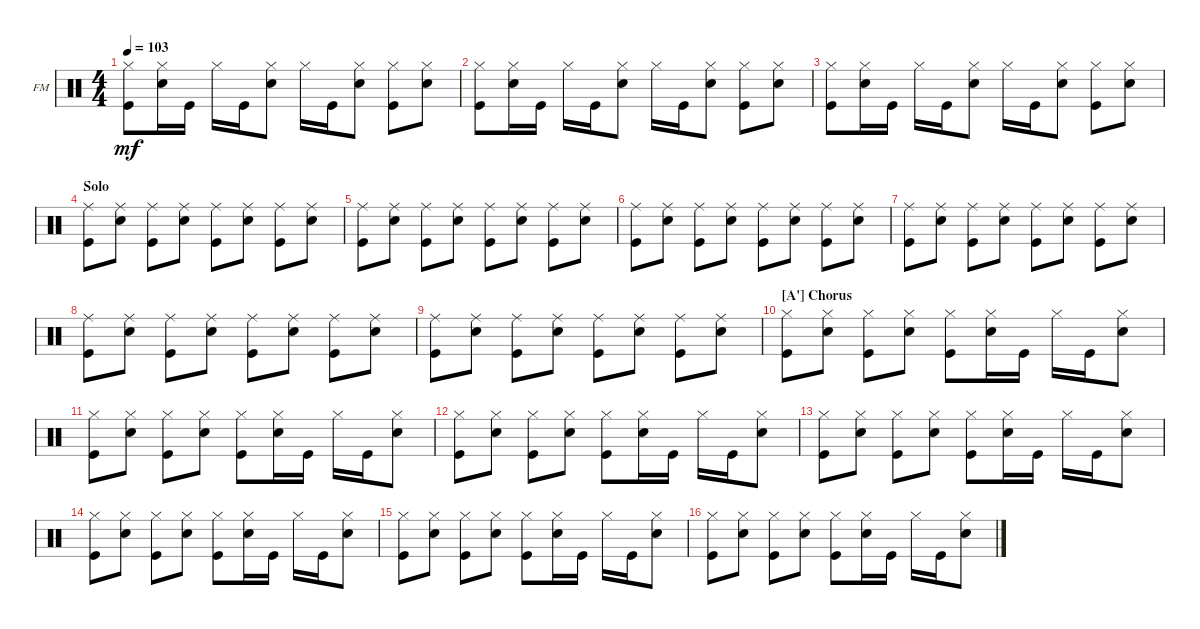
\defaultSystemsLayout 4
\bracketExtendMode groupsimilarinstruments
\firstSystemTrackNameOrientation horizontal
\otherSystemsTrackNameOrientation horizontal
\track ("Fabrizio Moretti" "FM") {instrument percussion}
\staff {score}
\articulation defaults
\ts (4 4)
\tempo 103
\clef neutral
\ks c
("Kick (hit)" "Hi-Hat (closed)").8{dy mf} ("Snare (hit) 2" "Hi-Hat (closed)").16 "Kick (hit)".16 "Hi-Hat (closed)".16 "Kick (hit)".16 ("Snare (hit) 2" "Hi-Hat (closed)").8 "Hi-Hat (closed)".16 "Kick (hit)".16 ("Snare (hit) 2" "Hi-Hat (closed)").8 ("Kick (hit)" "Hi-Hat (closed)").8 ("Snare (hit) 2" "Hi-Hat (closed)").8 |
("Kick (hit)" "Hi-Hat (closed)").8 ("Snare (hit) 2" "Hi-Hat (closed)").16 "Kick (hit)".16 "Hi-Hat (closed)".16 "Kick (hit)".16 ("Snare (hit) 2" "Hi-Hat (closed)").8 "Hi-Hat (closed)".16 "Kick (hit)".16 ("Snare (hit) 2" "Hi-Hat (closed)").8 ("Kick (hit)" "Hi-Hat (closed)").8 ("Snare (hit) 2" "Hi-Hat (closed)").8 |
("Kick (hit)" "Hi-Hat (closed)").8 ("Snare (hit) 2" "Hi-Hat (closed)").16 "Kick (hit)".16 "Hi-Hat (closed)".16 "Kick (hit)".16 ("Snare (hit) 2" "Hi-Hat (closed)").8 "Hi-Hat (closed)".16 "Kick (hit)".16 ("Snare (hit) 2" "Hi-Hat (closed)").8 ("Kick (hit)" "Hi-Hat (closed)").8 ("Snare (hit) 2" "Hi-Hat (closed)").8 |
\section ("" "Solo")
("Kick (hit)" "Ride (middle)").8 ("Snare (hit) 2" "Ride (middle)").8 ("Kick (hit)" "Ride (middle)").8 ("Snare (hit) 2" "Ride (middle)").8 ("Kick (hit)" "Ride (middle)").8 ("Snare (hit) 2" "Ride (middle)").8 ("Kick (hit)" "Ride (middle)").8 ("Snare (hit) 2" "Ride (middle)").8 |
("Kick (hit)" "Ride (middle)").8 ("Snare (hit) 2" "Ride (middle)").8 ("Kick (hit)" "Ride (middle)").8 ("Snare (hit) 2" "Ride (middle)").8 ("Kick (hit)" "Ride (middle)").8 ("Snare (hit) 2" "Ride (middle)").8 ("Kick (hit)" "Ride (middle)").8 ("Snare (hit) 2" "Ride (middle)").8 |
("Kick (hit)" "Ride (middle)").8 ("Snare (hit) 2" "Ride (middle)").8 ("Kick (hit)" "Ride (middle)").8 ("Snare (hit) 2" "Ride (middle)").8 ("Kick (hit)" "Ride (middle)").8 ("Snare (hit) 2" "Ride (middle)").8 ("Kick (hit)" "Ride (middle)").8 ("Snare (hit) 2" "Ride (middle)").8 |
("Kick (hit)" "Ride (middle)").8 ("Snare (hit) 2" "Ride (middle)").8 ("Kick (hit)" "Ride (middle)").8 ("Snare (hit) 2" "Ride (middle)").8 ("Kick (hit)" "Ride (middle)").8 ("Snare (hit) 2" "Ride (middle)").8 ("Kick (hit)" "Ride (middle)").8 ("Snare (hit) 2" "Ride (middle)").8 |
("Kick (hit)" "Ride (middle)").8 ("Snare (hit) 2" "Ride (middle)").8 ("Kick (hit)" "Ride (middle)").8 ("Snare (hit) 2" "Ride (middle)").8 ("Kick (hit)" "Ride (middle)").8 ("Snare (hit) 2" "Ride (middle)").8 ("Kick (hit)" "Ride (middle)").8 ("Snare (hit) 2" "Ride (middle)").8 |
("Kick (hit)" "Ride (middle)").8 ("Snare (hit) 2" "Ride (middle)").8 ("Kick (hit)" "Ride (middle)").8 ("Snare (hit) 2" "Ride (middle)").8 ("Kick (hit)" "Ride (middle)").8 ("Snare (hit) 2" "Ride (middle)").8 ("Kick (hit)" "Ride (middle)").8 ("Snare (hit) 2" "Ride (middle)").8 |
\section ("A'" "Chorus")
("Kick (hit)" "Hi-Hat (closed)").8 ("Snare (hit) 2" "Hi-Hat (closed)").8 ("Kick (hit)" "Hi-Hat (closed)").8 ("Snare (hit) 2" "Hi-Hat (closed)").8 ("Kick (hit)" "Hi-Hat (closed)").8 ("Snare (hit) 2" "Hi-Hat (closed)").16 "Kick (hit)".16 "Hi-Hat (closed)".16 "Kick (hit)".16 ("Snare (hit) 2" "Hi-Hat (closed)").8 |
("Kick (hit)" "Hi-Hat (closed)").8 ("Snare (hit) 2" "Hi-Hat (closed)").8 ("Kick (hit)" "Hi-Hat (closed)").8 ("Snare (hit) 2" "Hi-Hat (closed)").8 ("Kick (hit)" "Hi-Hat (closed)").8 ("Snare (hit) 2" "Hi-Hat (closed)").16 "Kick (hit)".16 "Hi-Hat (closed)".16 "Kick (hit)".16 ("Snare (hit) 2" "Hi-Hat (closed)").8 |
("Kick (hit)" "Hi-Hat (closed)").8 ("Snare (hit) 2" "Hi-Hat (closed)").8 ("Kick (hit)" "Hi-Hat (closed)").8 ("Snare (hit) 2" "Hi-Hat (closed)").8 ("Kick (hit)" "Hi-Hat (closed)").8 ("Snare (hit) 2" "Hi-Hat (closed)").16 "Kick (hit)".16 "Hi-Hat (closed)".16 "Kick (hit)".16 ("Snare (hit) 2" "Hi-Hat (closed)").8 |
("Kick (hit)" "Hi-Hat (closed)").8 ("Snare (hit) 2" "Hi-Hat (closed)").8 ("Kick (hit)" "Hi-Hat (closed)").8 ("Snare (hit) 2" "Hi-Hat (closed)").8 ("Kick (hit)" "Hi-Hat (closed)").8 ("Snare (hit) 2" "Hi-Hat (closed)").16 "Kick (hit)".16 "Hi-Hat (closed)".16 "Kick (hit)".16 ("Snare (hit) 2" "Hi-Hat (closed)").8 |
("Kick (hit)" "Hi-Hat (closed)").8 ("Snare (hit) 2" "Hi-Hat (closed)").8 ("Kick (hit)" "Hi-Hat (closed)").8 ("Snare (hit) 2" "Hi-Hat (closed)").8 ("Kick (hit)" "Hi-Hat (closed)").8 ("Snare (hit) 2" "Hi-Hat (closed)").16 "Kick (hit)".16 "Hi-Hat (closed)".16 "Kick (hit)".16 ("Snare (hit) 2" "Hi-Hat (closed)").8 |
("Kick (hit)" "Hi-Hat (closed)").8 ("Snare (hit) 2" "Hi-Hat (closed)").8 ("Kick (hit)" "Hi-Hat (closed)").8 ("Snare (hit) 2" "Hi-Hat (closed)").8 ("Kick (hit)" "Hi-Hat (closed)").8 ("Snare (hit) 2" "Hi-Hat (closed)").16 "Kick (hit)".16 "Hi-Hat (closed)".16 "Kick (hit)".16 ("Snare (hit) 2" "Hi-Hat (closed)").8 |
("Kick (hit)" "Hi-Hat (closed)").8 ("Snare (hit) 2" "Hi-Hat (closed)").8 ("Kick (hit)" "Hi-Hat (closed)").8 ("Snare (hit) 2" "Hi-Hat (closed)").8 ("Kick (hit)" "Hi-Hat (closed)").8 ("Snare (hit) 2" "Hi-Hat (closed)").16 "Kick (hit)".16 "Hi-Hat (closed)".16 "Kick (hit)".16 ("Snare (hit) 2" "Hi-Hat (closed)").8
